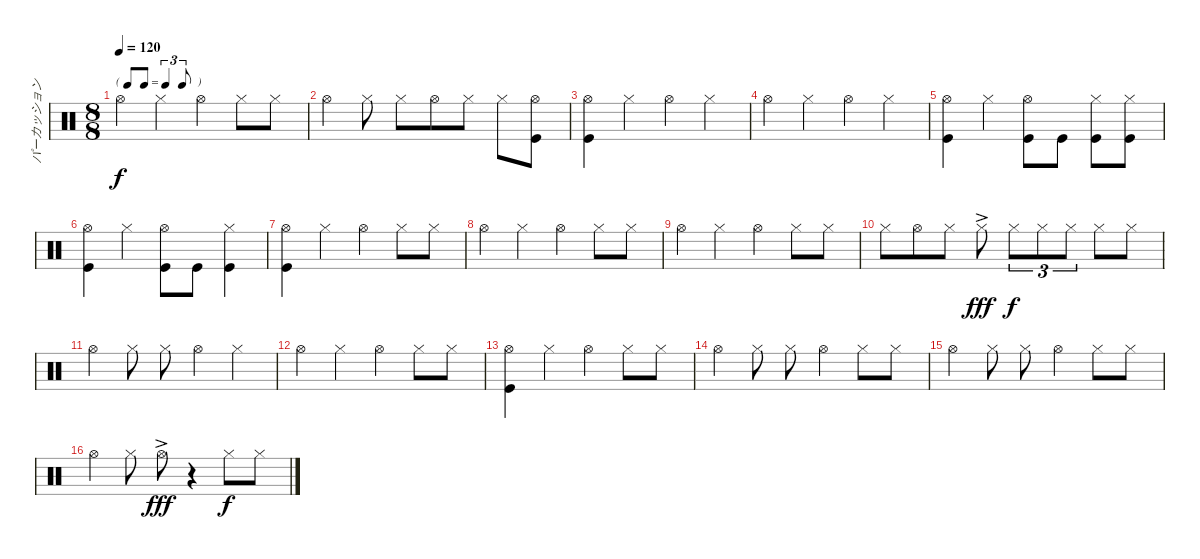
\track ("パーカッション" "パーカッション") {instrument percussion}
\staff {score}
\articulation defaults
\ts (8 8)
\tf triplet8th
\tempo 120
\clef neutral
\ks c "Hi-Hat (open)".4{dy f} "Hi-Hat (closed)".4 "Hi-Hat (open)".4 "Hi-Hat (closed)".8 "Hi-Hat (closed)".8
|
"Hi-Hat (open)".4 "Hi-Hat (closed)".8 "Hi-Hat (closed)".8 "Hi-Hat (open)".8 "Hi-Hat (closed)".8 "Hi-Hat (closed)".8 ("Hi-Hat (open)" "Kick (hit)").8 |
("Hi-Hat (open)" "Kick (hit)").4 "Hi-Hat (closed)".4 "Hi-Hat (open)".4 "Hi-Hat (closed)".4 |
"Hi-Hat (open)".4 "Hi-Hat (closed)".4 "Hi-Hat (open)".4 "Hi-Hat (closed)".4 |
("Hi-Hat (open)" "Kick (hit)").4 "Hi-Hat (closed)".4 ("Hi-Hat (open)" "Kick (hit)").8 "Kick (hit)".8 ("Hi-Hat (closed)" "Kick (hit)").8 ("Hi-Hat (closed)" "Kick (hit)").8 |
("Hi-Hat (open)" "Kick (hit)").4 "Hi-Hat (closed)".4 ("Hi-Hat (open)" "Kick (hit)").8 "Kick (hit)".8 ("Hi-Hat (closed)" "Kick (hit)").4 |
("Hi-Hat (open)" "Kick (hit)").4 "Hi-Hat (closed)".4 "Hi-Hat (open)".4 "Hi-Hat (closed)".8 "Hi-Hat (closed)".8 |
"Hi-Hat (open)".4 "Hi-Hat (closed)".4 "Hi-Hat (open)".4 "Hi-Hat (closed)".8 "Hi-Hat (closed)".8 |
"Hi-Hat (open)".4 "Hi-Hat (closed)".4 "Hi-Hat (open)".4 "Hi-Hat (closed)".8 "Hi-Hat (closed)".8 |
"Hi-Hat (closed)".8 "Hi-Hat (open)".8 "Hi-Hat (closed)".8 "Hi-Hat (closed)"{ac}.8{dy fff} "Hi-Hat (closed)".8{tu (3 2) dy f} "Hi-Hat (closed)".8{tu (3 2)} "Hi-Hat (closed)".8{tu (3 2)} "Hi-Hat (closed)".8 "Hi-Hat (closed)".8 |
"Hi-Hat (open)".4 "Hi-Hat (closed)".8 "Hi-Hat (closed)".8 "Hi-Hat (open)".4 "Hi-Hat (closed)".4 |
"Hi-Hat (open)".4 "Hi-Hat (closed)".4 "Hi-Hat (open)".4 "Hi-Hat (closed)".8 "Hi-Hat (closed)".8 |
("Hi-Hat (open)" "Kick (hit)").4 "Hi-Hat (closed)".4 "Hi-Hat (open)".4 "Hi-Hat (closed)".8 "Hi-Hat (closed)".8 |
"Hi-Hat (open)".4 "Hi-Hat (closed)".8 "Hi-Hat (closed)".8 "Hi-Hat (open)".4 "Hi-Hat (closed)".8 "Hi-Hat (closed)".8 |
"Hi-Hat (open)".4 "Hi-Hat (closed)".8 "Hi-Hat (closed)".8 "Hi-Hat (open)".4 "Hi-Hat (closed)".8 "Hi-Hat (closed)".8 |
"Hi-Hat (open)".4 "Hi-Hat (closed)".8 "Hi-Hat (open)"{ac}.8{dy fff} r.4 "Hi-Hat (closed)".8{dy f} "Hi-Hat (closed)".8
